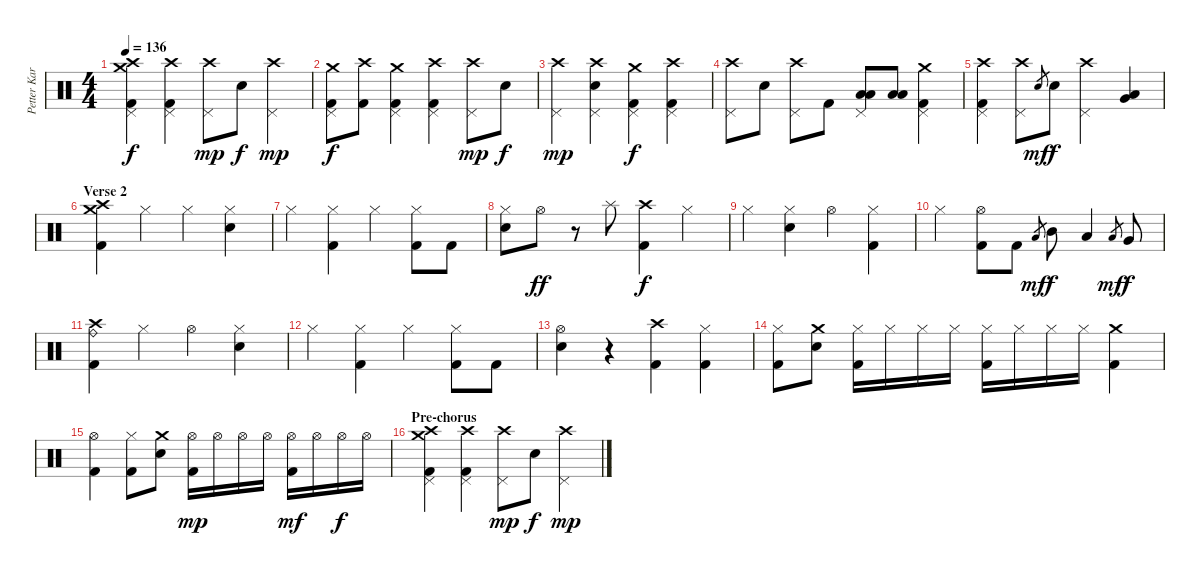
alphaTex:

\track ("Petter Karlsson" "Petter Kar") {instrument percussion}
\staff {score}
\articulation defaults
\ts (4 4)
\tempo 136
\clef neutral
\ks c
("Crash high (hit)" "Crash medium (hit)" "Pedal Hi-Hat (hit)" "Kick (hit) 2").4{dy f} ("Crash high (hit)" "Pedal Hi-Hat (hit)" "Kick (hit) 2").4 ("Pedal Hi-Hat (hit)" "Crash high (hit)").8{dy mp} "Snare (hit) 2".8{dy f} ("Pedal Hi-Hat (hit)" "Crash high (hit)").4{dy mp} |
("Crash medium (hit)" "Pedal Hi-Hat (hit)" "Kick (hit) 2").8{dy f} ("Crash high (hit)" "Kick (hit) 2").8 ("Crash medium (hit)" "Pedal Hi-Hat (hit)" "Kick (hit) 2").4 ("Crash high (hit)" "Pedal Hi-Hat (hit)" "Kick (hit) 2").4 ("Pedal Hi-Hat (hit)" "Crash high (hit)").8{dy mp} "Snare (hit) 2".8{dy f} |
("Pedal Hi-Hat (hit)" "Crash high (hit)").4{dy mp} ("Pedal Hi-Hat (hit)" "Crash high (hit)" "Snare (hit) 2").4 ("Crash medium (hit)" "Pedal Hi-Hat (hit)" "Kick (hit) 2").4{dy f} ("Crash high (hit)" "Pedal Hi-Hat (hit)" "Kick (hit) 2").4 |
("Crash high (hit)" "Pedal Hi-Hat (hit)").8 "Snare (hit) 2".8 ("Crash high (hit)" "Pedal Hi-Hat (hit)").8 "Kick (hit) 2".8 ("Pedal Hi-Hat (hit)" "Low Tom (hit)" "Low Floor Tom (hit)").8 ("Low Tom (hit)" "Low Floor Tom (hit)").8 ("Crash medium (hit)" "Pedal Hi-Hat (hit)" "Kick (hit) 2").4 |
("Crash high (hit)" "Pedal Hi-Hat (hit)" "Kick (hit) 2").4 ("Pedal Hi-Hat (hit)" "Crash high (hit)").8 "Snare (hit) 2".8{gr dy mf} "Snare (hit) 2".8{dy f} ("Pedal Hi-Hat (hit)" "Crash high (hit)").4 ("Low Tom (hit)" "Very Low Tom (hit)").4 |
\section ("" "Verse 2")
("Crash high (hit)" "Crash medium (hit)" "Kick (hit) 2").4 "Hi-Hat (closed)".4 "Hi-Hat (closed)".4 ("Hi-Hat (closed)" "Snare (hit) 2").4 |
"Hi-Hat (closed)".4 ("Hi-Hat (closed)" "Kick (hit) 2").4 "Hi-Hat (closed)".4 ("Hi-Hat (closed)" "Kick (hit) 2").8 "Kick (hit) 2".8 |
("Hi-Hat (closed)" "Snare (hit) 2").8 "Hi-Hat (open)".8{dy ff} r.8 "Splash (hit)".8 ("Crash high (hit)" "Kick (hit) 2").4{dy f} "Hi-Hat (closed)".4 |
"Hi-Hat (closed)".4 ("Hi-Hat (closed)" "Snare (hit) 2").4 "Hi-Hat (open)".4 ("Hi-Hat (closed)" "Kick (hit) 2").4 |
"Hi-Hat (closed)".4 ("Hi-Hat (open)" "Kick (hit) 2").8 "Kick (hit) 2".8 "Low Tom (hit)".8{gr dy mf} "Mid Tom (hit)".8{dy f} "Low Tom (hit)".4 "Low Tom (hit)".8{gr dy mf} "Very Low Tom (hit)".8{dy f} |
("Crash high (hit)" "Ride (bell)" "Kick (hit) 2").4 "Hi-Hat (closed)".4 "Hi-Hat (open)".4 ("Hi-Hat (closed)" "Snare (hit) 2").4 |
"Hi-Hat (closed)".4 ("Hi-Hat (closed)" "Kick (hit) 2").4 "Hi-Hat (closed)".4 ("Hi-Hat (closed)" "Kick (hit) 2").8 "Kick (hit) 2".8 |
("Hi-Hat (open)" "Snare (hit) 2").4 r.4 ("Crash high (hit)" "Kick (hit) 2").4 ("Hi-Hat (closed)" "Kick (hit) 2").4 |
("Hi-Hat (closed)" "Kick (hit) 2").8 ("Crash medium (hit)" "Snare (hit) 2").8 ("Hi-Hat (closed)" "Kick (hit) 2").16 "Hi-Hat (closed)".16 "Hi-Hat (closed)".16 "Hi-Hat (closed)".16 ("Hi-Hat (closed)" "Kick (hit) 2").16 "Hi-Hat (closed)".16 "Hi-Hat (closed)".16 "Hi-Hat (closed)".16 ("Crash medium (hit)" "Kick (hit) 2").4 |
("Hi-Hat (open)" "Kick (hit) 2").4 ("Hi-Hat (closed)" "Kick (hit) 2").8 ("Crash medium (hit)" "Snare (hit) 2").8 ("Hi-Hat (open)" "Kick (hit) 2").16{dy mp} "Hi-Hat (open)".16 "Hi-Hat (open)".16 "Hi-Hat (open)".16 ("Hi-Hat (open)" "Kick (hit) 2").16{dy mf} "Hi-Hat (open)".16 "Hi-Hat (open)".16{dy f} "Hi-Hat (open)".16 |
\section ("" "Pre-chorus")
("Crash high (hit)" "Crash medium (hit)" "Pedal Hi-Hat (hit)" "Kick (hit) 2").4 ("Crash high (hit)" "Pedal Hi-Hat (hit)" "Kick (hit) 2").4 ("Pedal Hi-Hat (hit)" "Crash high (hit)").8{dy mp} "Snare (hit) 2".8{dy f} ("Pedal Hi-Hat (hit)" "Crash high (hit)").4{dy mp}
